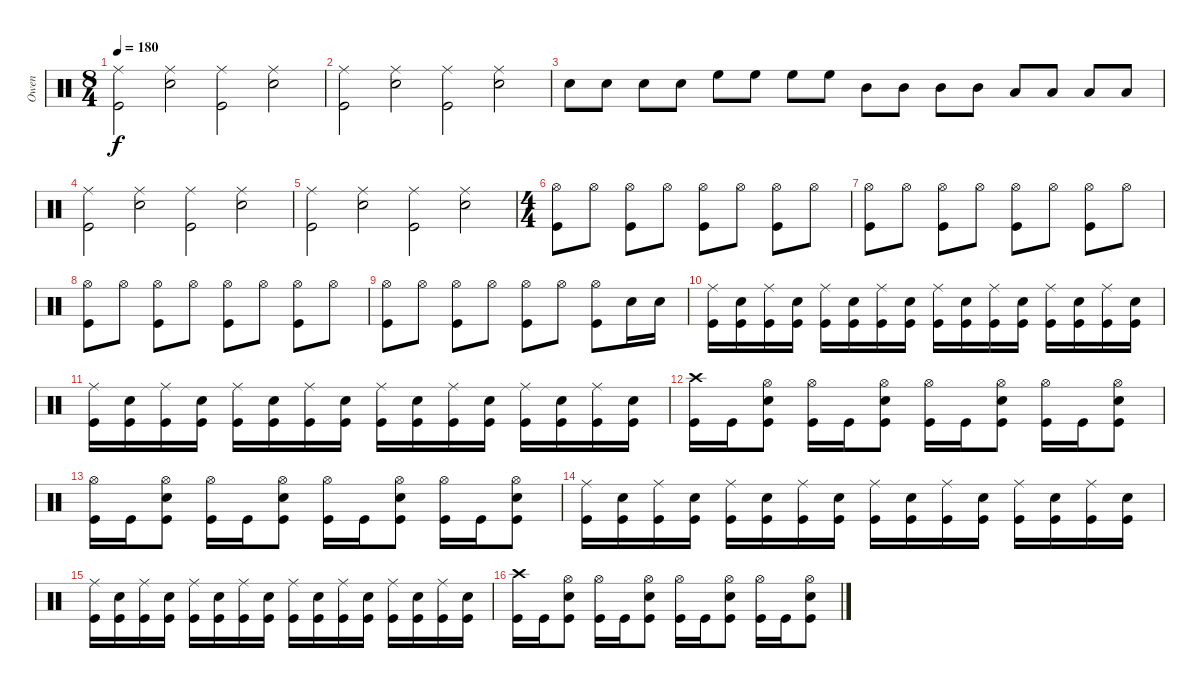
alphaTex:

\track ("Owen" "Owen") {instrument percussion}
\staff {score}
\articulation defaults
\ts (8 4)
\tempo 180
\clef neutral
\ks c
("Ride (middle)" "Kick (hit)").2{dy f} ("Ride (middle)" "Snare (hit) 2").2 ("Ride (middle)" "Kick (hit)").2 ("Ride (middle)" "Snare (hit) 2").2 |
("Ride (middle)" "Kick (hit)").2 ("Ride (middle)" "Snare (hit) 2").2 ("Ride (middle)" "Kick (hit)").2 ("Ride (middle)" "Snare (hit) 2").2 |
"Snare (hit) 2".8 "Snare (hit) 2".8 "Snare (hit) 2".8 "Snare (hit) 2".8 "High Floor Tom (hit)".8 "High Floor Tom (hit)".8 "High Floor Tom (hit)".8 "High Floor Tom (hit)".8 "Mid Tom (hit)".8 "Mid Tom (hit)".8 "Mid Tom (hit)".8 "Mid Tom (hit)".8 "Low Tom (hit)".8 "Low Tom (hit)".8 "Low Floor Tom (hit)".8 "Low Floor Tom (hit)".8 |
("Ride (middle)" "Kick (hit)").2 ("Ride (middle)" "Snare (hit) 2").2 ("Ride (middle)" "Kick (hit)").2 ("Ride (middle)" "Snare (hit) 2").2 |
("Ride (middle)" "Kick (hit)").2 ("Ride (middle)" "Snare (hit) 2").2 ("Ride (middle)" "Kick (hit)").2 ("Ride (middle)" "Snare (hit) 2").2 |
\ts (4 4)
("Hi-Hat (open)" "Kick (hit)").8 "Hi-Hat (open)".8 ("Hi-Hat (open)" "Kick (hit)").8 "Hi-Hat (open)".8 ("Hi-Hat (open)" "Kick (hit)").8 "Hi-Hat (open)".8 ("Hi-Hat (open)" "Kick (hit)").8 "Hi-Hat (open)".8 |
("Hi-Hat (open)" "Kick (hit)").8 "Hi-Hat (open)".8 ("Hi-Hat (open)" "Kick (hit)").8 "Hi-Hat (open)".8 ("Hi-Hat (open)" "Kick (hit)").8 "Hi-Hat (open)".8 ("Hi-Hat (open)" "Kick (hit)").8 "Hi-Hat (open)".8 |
("Hi-Hat (open)" "Kick (hit)").8 "Hi-Hat (open)".8 ("Hi-Hat (open)" "Kick (hit)").8 "Hi-Hat (open)".8 ("Hi-Hat (open)" "Kick (hit)").8 "Hi-Hat (open)".8 ("Hi-Hat (open)" "Kick (hit)").8 "Hi-Hat (open)".8 |
("Hi-Hat (open)" "Kick (hit)").8 "Hi-Hat (open)".8 ("Hi-Hat (open)" "Kick (hit)").8 "Hi-Hat (open)".8 ("Hi-Hat (open)" "Kick (hit)").8 "Hi-Hat (open)".8 ("Hi-Hat (open)" "Kick (hit)").8 "Snare (hit) 2".16 "Snare (hit) 2".16 |
("Ride (middle)" "Kick (hit)").16 ("Snare (hit) 2" "Kick (hit)").16 ("Ride (middle)" "Kick (hit)").16 ("Snare (hit) 2" "Kick (hit)").16 ("Ride (middle)" "Kick (hit)").16 ("Snare (hit) 2" "Kick (hit)").16 ("Ride (middle)" "Kick (hit)").16 ("Snare (hit) 2" "Kick (hit)").16 ("Ride (middle)" "Kick (hit)").16 ("Snare (hit) 2" "Kick (hit)").16 ("Ride (middle)" "Kick (hit)").16 ("Snare (hit) 2" "Kick (hit)").16 ("Ride (middle)" "Kick (hit)").16 ("Snare (hit) 2" "Kick (hit)").16 ("Ride (middle)" "Kick (hit)").16 ("Snare (hit) 2" "Kick (hit)").16 |
("Ride (middle)" "Kick (hit)").16 ("Snare (hit) 2" "Kick (hit)").16 ("Ride (middle)" "Kick (hit)").16 ("Snare (hit) 2" "Kick (hit)").16 ("Ride (middle)" "Kick (hit)").16 ("Snare (hit) 2" "Kick (hit)").16 ("Ride (middle)" "Kick (hit)").16 ("Snare (hit) 2" "Kick (hit)").16 ("Ride (middle)" "Kick (hit)").16 ("Snare (hit) 2" "Kick (hit)").16 ("Ride (middle)" "Kick (hit)").16 ("Snare (hit) 2" "Kick (hit)").16 ("Ride (middle)" "Kick (hit)").16 ("Snare (hit) 2" "Kick (hit)").16 ("Ride (middle)" "Kick (hit)").16 ("Snare (hit) 2" "Kick (hit)").16 |
("Crash high (hit)" "Kick (hit)").16 "Kick (hit)".16 ("Hi-Hat (open)" "Snare (hit) 2" "Kick (hit)").8 ("Hi-Hat (open)" "Kick (hit)").16 "Kick (hit)".16 ("Hi-Hat (open)" "Snare (hit) 2" "Kick (hit)").8 ("Hi-Hat (open)" "Kick (hit)").16 "Kick (hit)".16 ("Hi-Hat (open)" "Snare (hit) 2" "Kick (hit)").8 ("Hi-Hat (open)" "Kick (hit)").16 "Kick (hit)".16 ("Hi-Hat (open)" "Snare (hit) 2" "Kick (hit)").8 |
("Hi-Hat (open)" "Kick (hit)").16 "Kick (hit)".16 ("Hi-Hat (open)" "Snare (hit) 2" "Kick (hit)").8 ("Hi-Hat (open)" "Kick (hit)").16 "Kick (hit)".16 ("Hi-Hat (open)" "Snare (hit) 2" "Kick (hit)").8 ("Hi-Hat (open)" "Kick (hit)").16 "Kick (hit)".16 ("Hi-Hat (open)" "Snare (hit) 2" "Kick (hit)").8 ("Hi-Hat (open)" "Kick (hit)").16 "Kick (hit)".16 ("Hi-Hat (open)" "Snare (hit) 2" "Kick (hit)").8 |
("Ride (middle)" "Kick (hit)").16 ("Snare (hit) 2" "Kick (hit)").16 ("Ride (middle)" "Kick (hit)").16 ("Snare (hit) 2" "Kick (hit)").16 ("Ride (middle)" "Kick (hit)").16 ("Snare (hit) 2" "Kick (hit)").16 ("Ride (middle)" "Kick (hit)").16 ("Snare (hit) 2" "Kick (hit)").16 ("Ride (middle)" "Kick (hit)").16 ("Snare (hit) 2" "Kick (hit)").16 ("Ride (middle)" "Kick (hit)").16 ("Snare (hit) 2" "Kick (hit)").16 ("Ride (middle)" "Kick (hit)").16 ("Snare (hit) 2" "Kick (hit)").16 ("Ride (middle)" "Kick (hit)").16 ("Snare (hit) 2" "Kick (hit)").16 |
("Ride (middle)" "Kick (hit)").16 ("Snare (hit) 2" "Kick (hit)").16 ("Ride (middle)" "Kick (hit)").16 ("Snare (hit) 2" "Kick (hit)").16 ("Ride (middle)" "Kick (hit)").16 ("Snare (hit) 2" "Kick (hit)").16 ("Ride (middle)" "Kick (hit)").16 ("Snare (hit) 2" "Kick (hit)").16 ("Ride (middle)" "Kick (hit)").16 ("Snare (hit) 2" "Kick (hit)").16 ("Ride (middle)" "Kick (hit)").16 ("Snare (hit) 2" "Kick (hit)").16 ("Ride (middle)" "Kick (hit)").16 ("Snare (hit) 2" "Kick (hit)").16 ("Ride (middle)" "Kick (hit)").16 ("Snare (hit) 2" "Kick (hit)").16 |
("Crash high (hit)" "Kick (hit)").16 "Kick (hit)".16 ("Hi-Hat (open)" "Snare (hit) 2" "Kick (hit)").8 ("Hi-Hat (open)" "Kick (hit)").16 "Kick (hit)".16 ("Hi-Hat (open)" "Snare (hit) 2" "Kick (hit)").8 ("Hi-Hat (open)" "Kick (hit)").16 "Kick (hit)".16 ("Hi-Hat (open)" "Snare (hit) 2" "Kick (hit)").8 ("Hi-Hat (open)" "Kick (hit)").16 "Kick (hit)".16 ("Hi-Hat (open)" "Snare (hit) 2" "Kick (hit)").8
